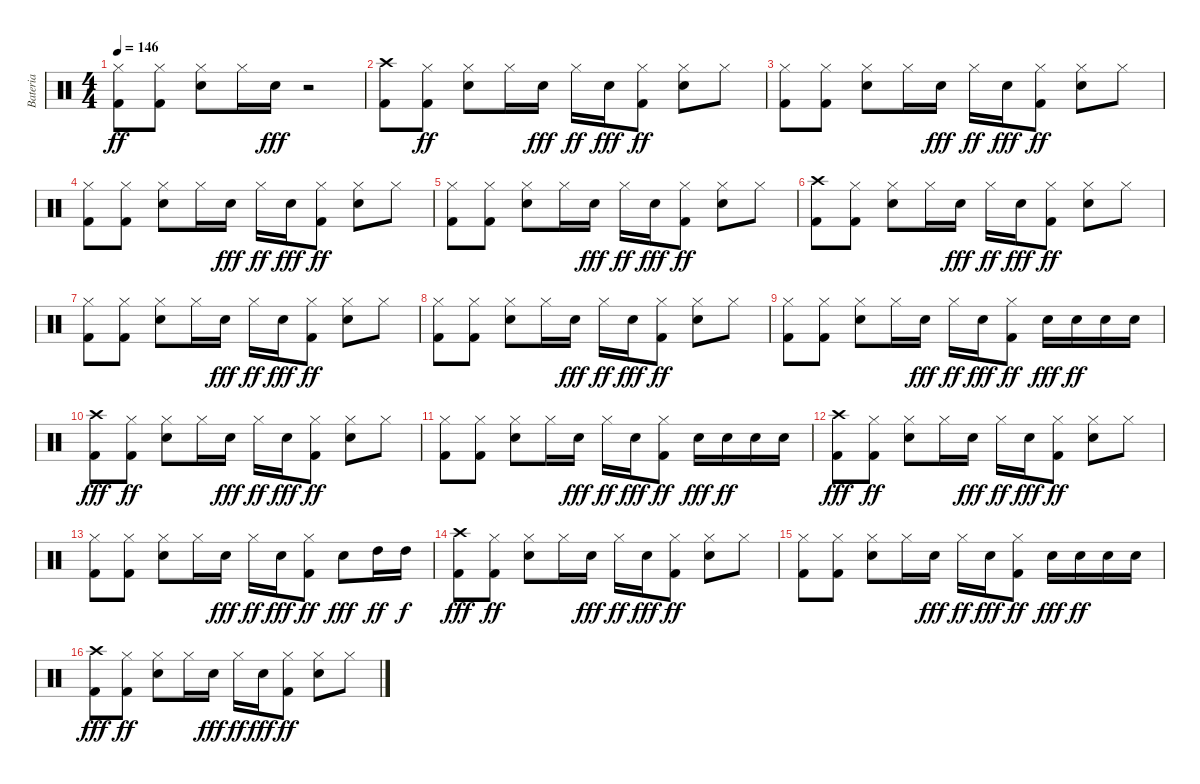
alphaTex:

\track ("Bateria" "Bateria") {instrument percussion}
\staff {score}
\articulation defaults
\ts (4 4)
\tempo 146
\clef neutral
\ks c
("Kick (hit) 2" "Hi-Hat (closed)").8{dy ff} ("Kick (hit) 2" "Hi-Hat (closed)").8 ("Electric Snare (hit)" "Hi-Hat (closed)").8 "Hi-Hat (closed)".16 "Electric Snare (hit)".16{dy fff} r.2 |
("Crash high (hit)" "Kick (hit) 2").8 ("Kick (hit) 2" "Hi-Hat (closed)").8{dy ff} ("Electric Snare (hit)" "Hi-Hat (closed)").8 "Hi-Hat (closed)".16 "Electric Snare (hit)".16{dy fff} "Hi-Hat (closed)".16{dy ff} "Electric Snare (hit)".16{dy fff} ("Kick (hit) 2" "Hi-Hat (closed)").8{dy ff} ("Electric Snare (hit)" "Hi-Hat (closed)").8 "Hi-Hat (closed)".8 |
("Kick (hit) 2" "Hi-Hat (closed)").8 ("Kick (hit) 2" "Hi-Hat (closed)").8 ("Electric Snare (hit)" "Hi-Hat (closed)").8 "Hi-Hat (closed)".16 "Electric Snare (hit)".16{dy fff} "Hi-Hat (closed)".16{dy ff} "Electric Snare (hit)".16{dy fff} ("Kick (hit) 2" "Hi-Hat (closed)").8{dy ff} ("Electric Snare (hit)" "Hi-Hat (closed)").8 "Hi-Hat (closed)".8 |
("Kick (hit) 2" "Hi-Hat (closed)").8 ("Kick (hit) 2" "Hi-Hat (closed)").8 ("Electric Snare (hit)" "Hi-Hat (closed)").8 "Hi-Hat (closed)".16 "Electric Snare (hit)".16{dy fff} "Hi-Hat (closed)".16{dy ff} "Electric Snare (hit)".16{dy fff} ("Kick (hit) 2" "Hi-Hat (closed)").8{dy ff} ("Electric Snare (hit)" "Hi-Hat (closed)").8 "Hi-Hat (closed)".8 |
("Kick (hit) 2" "Hi-Hat (closed)").8 ("Kick (hit) 2" "Hi-Hat (closed)").8 ("Electric Snare (hit)" "Hi-Hat (closed)").8 "Hi-Hat (closed)".16 "Electric Snare (hit)".16{dy fff} "Hi-Hat (closed)".16{dy ff} "Electric Snare (hit)".16{dy fff} ("Kick (hit) 2" "Hi-Hat (closed)").8{dy ff} ("Electric Snare (hit)" "Hi-Hat (closed)").8 "Hi-Hat (closed)".8 |
("Crash high (hit)" "Kick (hit) 2").8 ("Kick (hit) 2" "Hi-Hat (closed)").8 ("Electric Snare (hit)" "Hi-Hat (closed)").8 "Hi-Hat (closed)".16 "Electric Snare (hit)".16{dy fff} "Hi-Hat (closed)".16{dy ff} "Electric Snare (hit)".16{dy fff} ("Kick (hit) 2" "Hi-Hat (closed)").8{dy ff} ("Electric Snare (hit)" "Hi-Hat (closed)").8 "Hi-Hat (closed)".8 |
("Kick (hit) 2" "Hi-Hat (closed)").8 ("Kick (hit) 2" "Hi-Hat (closed)").8 ("Electric Snare (hit)" "Hi-Hat (closed)").8 "Hi-Hat (closed)".16 "Electric Snare (hit)".16{dy fff} "Hi-Hat (closed)".16{dy ff} "Electric Snare (hit)".16{dy fff} ("Kick (hit) 2" "Hi-Hat (closed)").8{dy ff} ("Electric Snare (hit)" "Hi-Hat (closed)").8 "Hi-Hat (closed)".8 |
("Kick (hit) 2" "Hi-Hat (closed)").8 ("Kick (hit) 2" "Hi-Hat (closed)").8 ("Electric Snare (hit)" "Hi-Hat (closed)").8 "Hi-Hat (closed)".16 "Electric Snare (hit)".16{dy fff} "Hi-Hat (closed)".16{dy ff} "Electric Snare (hit)".16{dy fff} ("Kick (hit) 2" "Hi-Hat (closed)").8{dy ff} ("Electric Snare (hit)" "Hi-Hat (closed)").8 "Hi-Hat (closed)".8 |
("Kick (hit) 2" "Hi-Hat (closed)").8 ("Kick (hit) 2" "Hi-Hat (closed)").8 ("Electric Snare (hit)" "Hi-Hat (closed)").8 "Hi-Hat (closed)".16 "Electric Snare (hit)".16{dy fff} "Hi-Hat (closed)".16{dy ff} "Electric Snare (hit)".16{dy fff} ("Kick (hit) 2" "Hi-Hat (closed)").8{dy ff} "Electric Snare (hit)".16{dy fff} "Electric Snare (hit)".16{dy ff} "Electric Snare (hit)".16 "Electric Snare (hit)".16 |
("Crash high (hit)" "Kick (hit) 2").8{dy fff} ("Kick (hit) 2" "Hi-Hat (closed)").8{dy ff} ("Electric Snare (hit)" "Hi-Hat (closed)").8 "Hi-Hat (closed)".16 "Electric Snare (hit)".16{dy fff} "Hi-Hat (closed)".16{dy ff} "Electric Snare (hit)".16{dy fff} ("Kick (hit) 2" "Hi-Hat (closed)").8{dy ff} ("Electric Snare (hit)" "Hi-Hat (closed)").8 "Hi-Hat (closed)".8 |
("Kick (hit) 2" "Hi-Hat (closed)").8 ("Kick (hit) 2" "Hi-Hat (closed)").8 ("Electric Snare (hit)" "Hi-Hat (closed)").8 "Hi-Hat (closed)".16 "Electric Snare (hit)".16{dy fff} "Hi-Hat (closed)".16{dy ff} "Electric Snare (hit)".16{dy fff} ("Kick (hit) 2" "Hi-Hat (closed)").8{dy ff} "Electric Snare (hit)".16{dy fff} "Electric Snare (hit)".16{dy ff} "Electric Snare (hit)".16 "Electric Snare (hit)".16 |
("Crash high (hit)" "Kick (hit) 2").8{dy fff} ("Kick (hit) 2" "Hi-Hat (closed)").8{dy ff} ("Electric Snare (hit)" "Hi-Hat (closed)").8 "Hi-Hat (closed)".16 "Electric Snare (hit)".16{dy fff} "Hi-Hat (closed)".16{dy ff} "Electric Snare (hit)".16{dy fff} ("Kick (hit) 2" "Hi-Hat (closed)").8{dy ff} ("Electric Snare (hit)" "Hi-Hat (closed)").8 "Hi-Hat (closed)".8 |
("Kick (hit) 2" "Hi-Hat (closed)").8 ("Kick (hit) 2" "Hi-Hat (closed)").8 ("Electric Snare (hit)" "Hi-Hat (closed)").8 "Hi-Hat (closed)".16 "Electric Snare (hit)".16{dy fff} "Hi-Hat (closed)".16{dy ff} "Electric Snare (hit)".16{dy fff} ("Kick (hit) 2" "Hi-Hat (closed)").8{dy ff} "Electric Snare (hit)".8{dy fff} "High Tom (hit)".16{dy ff} "High Tom (hit)".16{dy f} |
("Crash high (hit)" "Kick (hit) 2").8{dy fff} ("Kick (hit) 2" "Hi-Hat (closed)").8{dy ff} ("Electric Snare (hit)" "Hi-Hat (closed)").8 "Hi-Hat (closed)".16 "Electric Snare (hit)".16{dy fff} "Hi-Hat (closed)".16{dy ff} "Electric Snare (hit)".16{dy fff} ("Kick (hit) 2" "Hi-Hat (closed)").8{dy ff} ("Electric Snare (hit)" "Hi-Hat (closed)").8 "Hi-Hat (closed)".8 |
("Kick (hit) 2" "Hi-Hat (closed)").8 ("Kick (hit) 2" "Hi-Hat (closed)").8 ("Electric Snare (hit)" "Hi-Hat (closed)").8 "Hi-Hat (closed)".16 "Electric Snare (hit)".16{dy fff} "Hi-Hat (closed)".16{dy ff} "Electric Snare (hit)".16{dy fff} ("Kick (hit) 2" "Hi-Hat (closed)").8{dy ff} "Electric Snare (hit)".16{dy fff} "Electric Snare (hit)".16{dy ff} "Electric Snare (hit)".16 "Electric Snare (hit)".16 |
("Crash high (hit)" "Kick (hit) 2").8{dy fff} ("Kick (hit) 2" "Hi-Hat (closed)").8{dy ff} ("Electric Snare (hit)" "Hi-Hat (closed)").8 "Hi-Hat (closed)".16 "Electric Snare (hit)".16{dy fff} "Hi-Hat (closed)".16{dy ff} "Electric Snare (hit)".16{dy fff} ("Kick (hit) 2" "Hi-Hat (closed)").8{dy ff} ("Electric Snare (hit)" "Hi-Hat (closed)").8 "Hi-Hat (closed)".8
